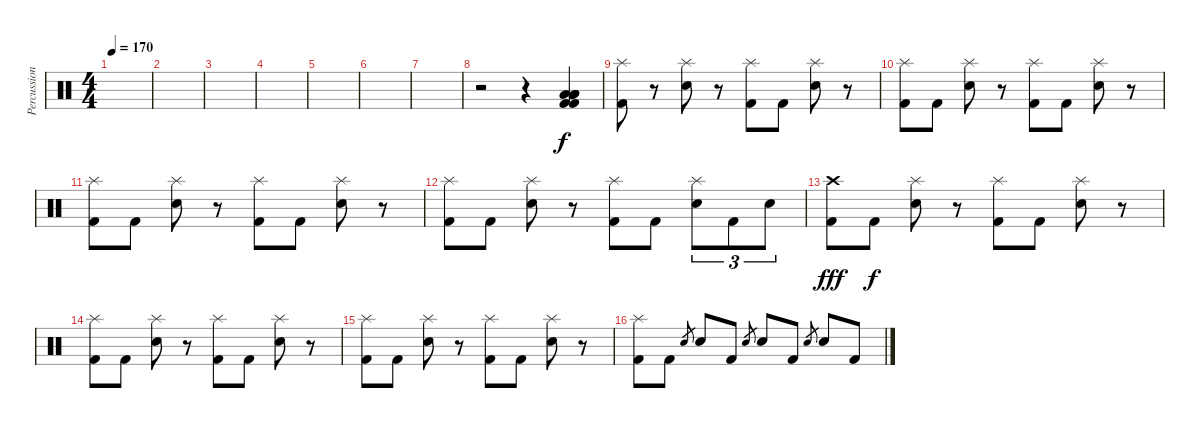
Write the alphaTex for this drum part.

\track ("Percussion" "Percussion") {instrument percussion}
\staff {score}
\articulation defaults
\ts (4 4)
\tempo 170
\clef neutral
\ks c
|
|
|
|
|
|
|
r.2 r.4 ("Low Tom (hit)" "Kick (hit) 2" "Low Tom (hit)" "Kick (hit) 2" "Low Tom (hit)" "Low Tom (hit)").4 |
("Splash (hit)" "Kick (hit) 2").8{dy f} r.8 ("Splash (hit)" "Electric Snare (hit)").8 r.8 ("Splash (hit)" "Kick (hit) 2").8 "Kick (hit) 2".8 ("Splash (hit)" "Electric Snare (hit)").8 r.8 |
("Splash (hit)" "Kick (hit) 2").8 "Kick (hit) 2".8 ("Splash (hit)" "Electric Snare (hit)").8 r.8 ("Splash (hit)" "Kick (hit) 2").8 "Kick (hit) 2".8 ("Splash (hit)" "Electric Snare (hit)").8 r.8 |
("Splash (hit)" "Kick (hit) 2").8 "Kick (hit) 2".8 ("Splash (hit)" "Electric Snare (hit)").8 r.8 ("Splash (hit)" "Kick (hit) 2").8 "Kick (hit) 2".8 ("Splash (hit)" "Electric Snare (hit)").8 r.8 |
("Splash (hit)" "Kick (hit) 2").8 "Kick (hit) 2".8 ("Splash (hit)" "Electric Snare (hit)").8 r.8 ("Splash (hit)" "Kick (hit) 2").8 "Kick (hit) 2".8 ("Splash (hit)" "Electric Snare (hit)").8{tu (3 2)} "Kick (hit) 2".8{tu (3 2)} "Electric Snare (hit)".8{tu (3 2)} |
("Crash high (hit)" "Kick (hit) 2").8{dy fff} "Kick (hit) 2".8{dy f} ("Splash (hit)" "Electric Snare (hit)").8 r.8 ("Splash (hit)" "Kick (hit) 2").8 "Kick (hit) 2".8 ("Splash (hit)" "Electric Snare (hit)").8 r.8 |
("Splash (hit)" "Kick (hit) 2").8 "Kick (hit) 2".8 ("Splash (hit)" "Electric Snare (hit)").8 r.8 ("Splash (hit)" "Kick (hit) 2").8 "Kick (hit) 2".8 ("Splash (hit)" "Electric Snare (hit)").8 r.8 |
("Splash (hit)" "Kick (hit) 2").8 "Kick (hit) 2".8 ("Splash (hit)" "Electric Snare (hit)").8 r.8 ("Splash (hit)" "Kick (hit) 2").8 "Kick (hit) 2".8 ("Splash (hit)" "Electric Snare (hit)").8 r.8 |
("Splash (hit)" "Kick (hit) 2").8 "Kick (hit) 2".8 "Electric Snare (hit)".8{gr} "Electric Snare (hit)".8 "Kick (hit) 2".8 "Electric Snare (hit)".8{gr} "Electric Snare (hit)".8 "Kick (hit) 2".8 "Electric Snare (hit)".8{gr} "Electric Snare (hit)".8 "Kick (hit) 2".8
